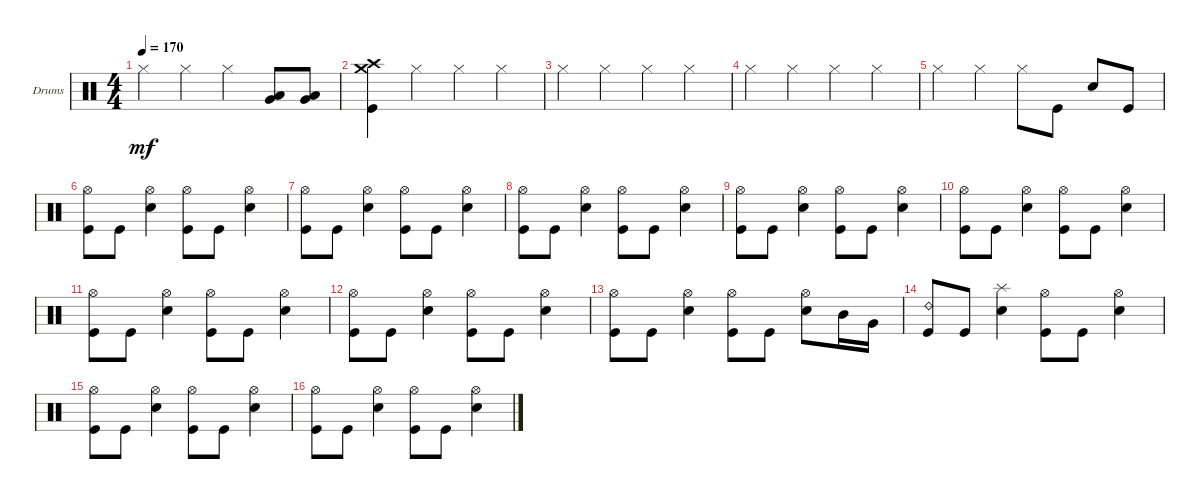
\defaultSystemsLayout 4
\bracketExtendMode groupsimilarinstruments
\firstSystemTrackNameOrientation horizontal
\otherSystemsTrackNameOrientation horizontal
\track ("Drumkit" "Drums") {instrument percussion}
\staff {score}
\articulation defaults
\ts (4 4)
\tempo 170
\clef neutral
\ks c "Hi-Hat (closed)".4{dy mf} "Hi-Hat (closed)".4 "Hi-Hat (closed)".4
("Low Tom (hit)" "Very Low Tom (hit)").8 ("Very Low Tom (hit)" "Low Tom (hit)").8 |
("Kick (hit)" "Crash high (hit)" "Crash medium (hit)").4 "Hi-Hat (closed)".4 "Hi-Hat (closed)".4 "Hi-Hat (closed)".4 |
"Hi-Hat (closed)".4 "Hi-Hat (closed)".4 "Hi-Hat (closed)".4 "Hi-Hat (closed)".4 |
"Hi-Hat (closed)".4 "Hi-Hat (closed)".4 "Hi-Hat (closed)".4 "Hi-Hat (closed)".4 |
"Hi-Hat (closed)".4 "Hi-Hat (closed)".4 "Hi-Hat (closed)".8 "Kick (hit)".8 "Snare (hit) 2".8 "Kick (hit)".8 |
("Kick (hit)" "Hi-Hat (open)").8 "Kick (hit)".8 ("Snare (hit) 2" "Hi-Hat (open)").4 ("Kick (hit)" "Hi-Hat (open)").8 "Kick (hit)".8 ("Snare (hit) 2" "Hi-Hat (open)").4 |
("Kick (hit)" "Hi-Hat (open)").8 "Kick (hit)".8 ("Snare (hit) 2" "Hi-Hat (open)").4 ("Kick (hit)" "Hi-Hat (open)").8 "Kick (hit)".8 ("Snare (hit) 2" "Hi-Hat (open)").4 |
("Kick (hit)" "Hi-Hat (open)").8 "Kick (hit)".8 ("Snare (hit) 2" "Hi-Hat (open)").4 ("Kick (hit)" "Hi-Hat (open)").8 "Kick (hit)".8 ("Snare (hit) 2" "Hi-Hat (open)").4 |
("Kick (hit)" "Hi-Hat (open)").8 "Kick (hit)".8 ("Snare (hit) 2" "Hi-Hat (open)").4 ("Kick (hit)" "Hi-Hat (open)").8 "Kick (hit)".8 ("Snare (hit) 2" "Hi-Hat (open)").4 |
("Kick (hit)" "Hi-Hat (open)").8 "Kick (hit)".8 ("Snare (hit) 2" "Hi-Hat (open)").4 ("Kick (hit)" "Hi-Hat (open)").8 "Kick (hit)".8 ("Snare (hit) 2" "Hi-Hat (open)").4 |
("Kick (hit)" "Hi-Hat (open)").8 "Kick (hit)".8 ("Snare (hit) 2" "Hi-Hat (open)").4 ("Kick (hit)" "Hi-Hat (open)").8 "Kick (hit)".8 ("Snare (hit) 2" "Hi-Hat (open)").4 |
("Kick (hit)" "Hi-Hat (open)").8 "Kick (hit)".8 ("Snare (hit) 2" "Hi-Hat (open)").4 ("Kick (hit)" "Hi-Hat (open)").8 "Kick (hit)".8 ("Snare (hit) 2" "Hi-Hat (open)").4 |
("Kick (hit)" "Hi-Hat (open)").8 "Kick (hit)".8 ("Snare (hit) 2" "Hi-Hat (open)").4 ("Kick (hit)" "Hi-Hat (open)").8 "Kick (hit)".8 ("Snare (hit) 2" "Hi-Hat (open)").8 "Mid Tom (hit)".16 "Very Low Tom (hit)".16 |
("Kick (hit)" "Ride (bell) 2").8 "Kick (hit)".8 ("Snare (hit) 2" "Splash (hit)").4 ("Kick (hit)" "Hi-Hat (open)").8 "Kick (hit)".8 ("Snare (hit) 2" "Hi-Hat (open)").4 |
("Kick (hit)" "Hi-Hat (open)").8 "Kick (hit)".8 ("Snare (hit) 2" "Hi-Hat (open)").4 ("Kick (hit)" "Hi-Hat (open)").8 "Kick (hit)".8 ("Snare (hit) 2" "Hi-Hat (open)").4 |
("Kick (hit)" "Hi-Hat (open)").8 "Kick (hit)".8 ("Snare (hit) 2" "Hi-Hat (open)").4 ("Kick (hit)" "Hi-Hat (open)").8 "Kick (hit)".8 ("Snare (hit) 2" "Hi-Hat (open)").4
